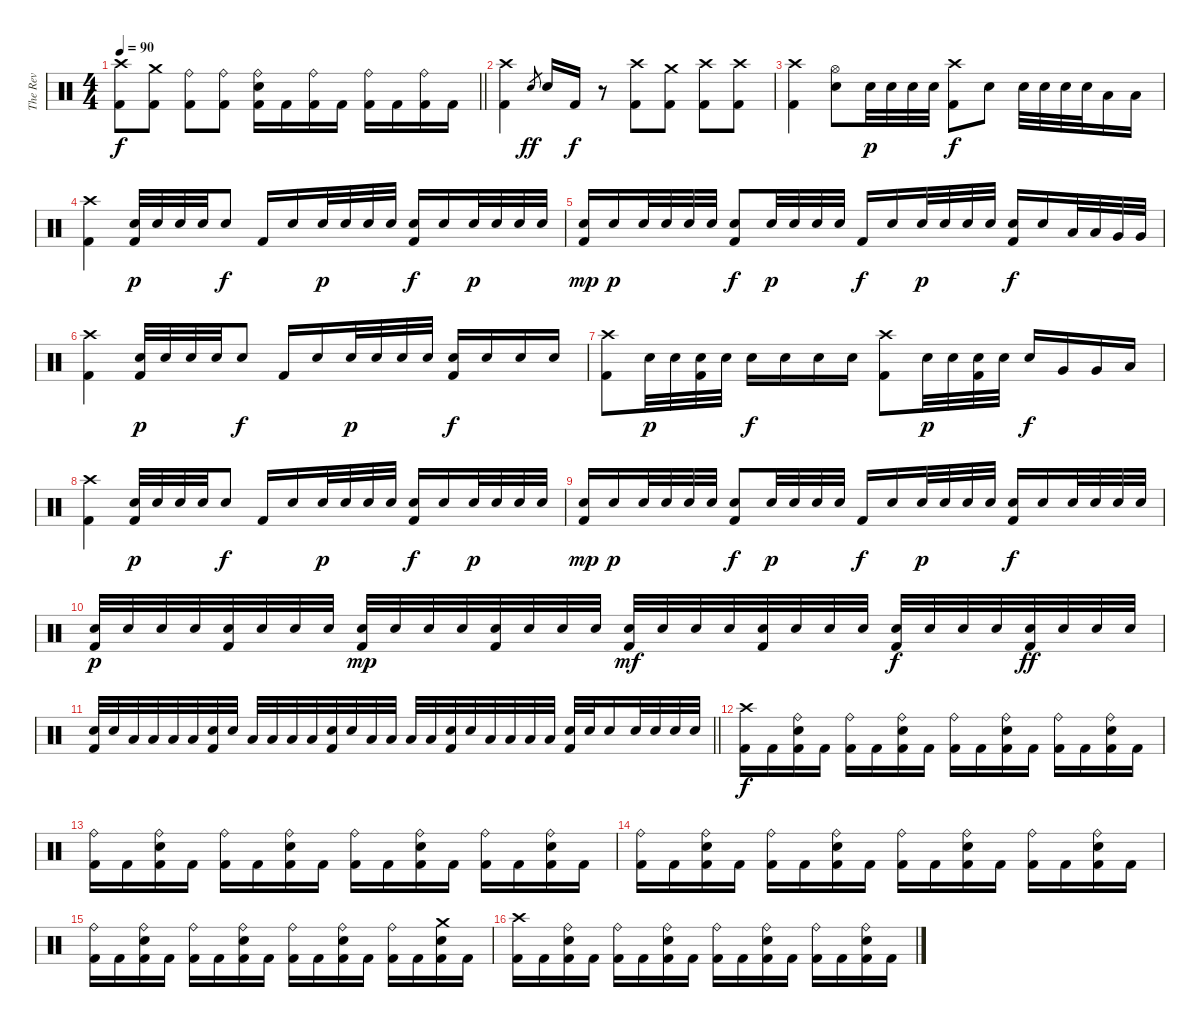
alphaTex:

\track ("The Rev" "The Rev") {instrument percussion}
\staff {score}
\articulation defaults
\ts (4 4)
\tempo 90
\clef neutral
\barLineRight lightlight
\ks c
("Crash high (hit)" "Kick (hit) 2").8{dy f} ("Crash medium (hit)" "Kick (hit) 2").8 ("Ride (bell)" "Kick (hit) 2").8 ("Ride (bell)" "Kick (hit) 2").8 ("Ride (bell)" "Electric Snare (hit)" "Kick (hit) 2").16 "Kick (hit) 2".16 ("Ride (bell)" "Kick (hit) 2").16 "Kick (hit) 2".16 ("Ride (bell)" "Kick (hit) 2").16 "Kick (hit) 2".16 ("Ride (bell)" "Kick (hit) 2").16 "Kick (hit) 2".16 |
("Crash high (hit)" "Kick (hit) 2").4 "Electric Snare (hit)".8{gr dy ff} "Electric Snare (hit)".16 "Kick (hit) 2".16{dy f} r.8 ("Crash high (hit)" "Kick (hit) 2").8 ("Crash medium (hit)" "Kick (hit) 2").8 ("Crash high (hit)" "Kick (hit) 2").8 ("Crash high (hit)" "Kick (hit) 2").8 |
("Crash high (hit)" "Kick (hit) 2").4 ("Hi-Hat (open)" "Electric Snare (hit)").8 "Electric Snare (hit)".32{dy p} "Electric Snare (hit)".32 "Electric Snare (hit)".32 "Electric Snare (hit)".32 ("Crash high (hit)" "Kick (hit) 2").8{dy f} "Electric Snare (hit)".8 "Electric Snare (hit)".32 "Electric Snare (hit)".32 "Electric Snare (hit)".32 "Electric Snare (hit)".32 "Low Tom (hit)".16 "Low Tom (hit)".16 |
("Crash high (hit)" "Kick (hit) 2").4 ("Electric Snare (hit)" "Kick (hit) 2").32{dy p} "Electric Snare (hit)".32 "Electric Snare (hit)".32 "Electric Snare (hit)".32 "Electric Snare (hit)".8{dy f} "Kick (hit) 2".16 "Electric Snare (hit)".16 "Electric Snare (hit)".32{dy p} "Electric Snare (hit)".32 "Electric Snare (hit)".32 "Electric Snare (hit)".32 ("Electric Snare (hit)" "Kick (hit) 2").16{dy f} "Electric Snare (hit)".16 "Electric Snare (hit)".32{dy p} "Electric Snare (hit)".32 "Electric Snare (hit)".32 "Electric Snare (hit)".32 |
("Electric Snare (hit)" "Kick (hit) 2").16{dy mp} "Electric Snare (hit)".16{dy p} "Electric Snare (hit)".32 "Electric Snare (hit)".32 "Electric Snare (hit)".32 "Electric Snare (hit)".32 ("Electric Snare (hit)" "Kick (hit) 2").8{dy f} "Electric Snare (hit)".32{dy p} "Electric Snare (hit)".32 "Electric Snare (hit)".32 "Electric Snare (hit)".32 "Kick (hit) 2".16{dy f} "Electric Snare (hit)".16 "Electric Snare (hit)".32{dy p} "Electric Snare (hit)".32 "Electric Snare (hit)".32 "Electric Snare (hit)".32 ("Electric Snare (hit)" "Kick (hit) 2").16{dy f} "Electric Snare (hit)".16 "Low Tom (hit)".32 "Low Tom (hit)".32 "Very Low Tom (hit)".32 "Very Low Tom (hit)".32 |
("Crash high (hit)" "Kick (hit) 2").4 ("Electric Snare (hit)" "Kick (hit) 2").32{dy p} "Electric Snare (hit)".32 "Electric Snare (hit)".32 "Electric Snare (hit)".32 "Electric Snare (hit)".8{dy f} "Kick (hit) 2".16 "Electric Snare (hit)".16 "Electric Snare (hit)".32{dy p} "Electric Snare (hit)".32 "Electric Snare (hit)".32 "Electric Snare (hit)".32 ("Electric Snare (hit)" "Kick (hit) 2").16{dy f} "Electric Snare (hit)".16 "Electric Snare (hit)".16 "Electric Snare (hit)".16 |
("Crash high (hit)" "Kick (hit) 2").8 "Electric Snare (hit)".32{dy p} "Electric Snare (hit)".32 ("Electric Snare (hit)" "Kick (hit) 2").32 "Electric Snare (hit)".32 "Electric Snare (hit)".16{dy f} "Electric Snare (hit)".16 "Electric Snare (hit)".16 "Electric Snare (hit)".16 ("Crash high (hit)" "Kick (hit) 2").8 "Electric Snare (hit)".32{dy p} "Electric Snare (hit)".32 ("Electric Snare (hit)" "Kick (hit) 2").32 "Electric Snare (hit)".32 "Electric Snare (hit)".16{dy f} "Very Low Tom (hit)".16 "Very Low Tom (hit)".16 "Low Floor Tom (hit)".16 |
("Crash high (hit)" "Kick (hit) 2").4 ("Electric Snare (hit)" "Kick (hit) 2").32{dy p} "Electric Snare (hit)".32 "Electric Snare (hit)".32 "Electric Snare (hit)".32 "Electric Snare (hit)".8{dy f} "Kick (hit) 2".16 "Electric Snare (hit)".16 "Electric Snare (hit)".32{dy p} "Electric Snare (hit)".32 "Electric Snare (hit)".32 "Electric Snare (hit)".32 ("Electric Snare (hit)" "Kick (hit) 2").16{dy f} "Electric Snare (hit)".16 "Electric Snare (hit)".32{dy p} "Electric Snare (hit)".32 "Electric Snare (hit)".32 "Electric Snare (hit)".32 |
("Electric Snare (hit)" "Kick (hit) 2").16{dy mp} "Electric Snare (hit)".16{dy p} "Electric Snare (hit)".32 "Electric Snare (hit)".32 "Electric Snare (hit)".32 "Electric Snare (hit)".32 ("Electric Snare (hit)" "Kick (hit) 2").8{dy f} "Electric Snare (hit)".32{dy p} "Electric Snare (hit)".32 "Electric Snare (hit)".32 "Electric Snare (hit)".32 "Kick (hit) 2".16{dy f} "Electric Snare (hit)".16 "Electric Snare (hit)".32{dy p} "Electric Snare (hit)".32 "Electric Snare (hit)".32 "Electric Snare (hit)".32 ("Electric Snare (hit)" "Kick (hit) 2").16{dy f} "Electric Snare (hit)".16 "Electric Snare (hit)".32 "Electric Snare (hit)".32 "Electric Snare (hit)".32 "Electric Snare (hit)".32 |
("Electric Snare (hit)" "Kick (hit) 2").32{dy p} "Electric Snare (hit)".32 "Electric Snare (hit)".32 "Electric Snare (hit)".32 ("Electric Snare (hit)" "Kick (hit) 2").32 "Electric Snare (hit)".32 "Electric Snare (hit)".32 "Electric Snare (hit)".32 ("Electric Snare (hit)" "Kick (hit) 2").32{dy mp} "Electric Snare (hit)".32 "Electric Snare (hit)".32 "Electric Snare (hit)".32 ("Electric Snare (hit)" "Kick (hit) 2").32 "Electric Snare (hit)".32 "Electric Snare (hit)".32 "Electric Snare (hit)".32 ("Electric Snare (hit)" "Kick (hit) 2").32{dy mf} "Electric Snare (hit)".32 "Electric Snare (hit)".32 "Electric Snare (hit)".32 ("Electric Snare (hit)" "Kick (hit) 2").32 "Electric Snare (hit)".32 "Electric Snare (hit)".32 "Electric Snare (hit)".32 ("Electric Snare (hit)" "Kick (hit) 2").32{dy f} "Electric Snare (hit)".32 "Electric Snare (hit)".32 "Electric Snare (hit)".32 ("Electric Snare (hit)" "Kick (hit) 2").32{dy ff} "Electric Snare (hit)".32 "Electric Snare (hit)".32 "Electric Snare (hit)".32 |
\barLineRight lightlight
("Electric Snare (hit)" "Kick (hit) 2").32 "Electric Snare (hit)".32 "Low Tom (hit)".32 "Low Tom (hit)".32 "Low Tom (hit)".32 "Low Tom (hit)".32 ("Electric Snare (hit)" "Kick (hit) 2").32 "Electric Snare (hit)".32 "Low Tom (hit)".32 "Low Tom (hit)".32 "Low Tom (hit)".32 "Low Tom (hit)".32 ("Electric Snare (hit)" "Kick (hit) 2").32 "Electric Snare (hit)".32 "Low Tom (hit)".32 "Low Tom (hit)".32 "Low Tom (hit)".32 "Low Tom (hit)".32 ("Electric Snare (hit)" "Kick (hit) 2").32 "Electric Snare (hit)".32 "Low Tom (hit)".32 "Low Tom (hit)".32 "Low Tom (hit)".32 "Low Tom (hit)".32 ("Electric Snare (hit)" "Kick (hit) 2").32 "Electric Snare (hit)".32 "Electric Snare (hit)".16 "Electric Snare (hit)".32 "Electric Snare (hit)".32 "Electric Snare (hit)".32 "Electric Snare (hit)".32 |
("Crash high (hit)" "Kick (hit) 2").16{dy f} "Kick (hit) 2".16 ("Ride (bell)" "Electric Snare (hit)" "Kick (hit) 2").16 "Kick (hit) 2".16 ("Ride (bell)" "Kick (hit) 2").16 "Kick (hit) 2".16 ("Ride (bell)" "Electric Snare (hit)" "Kick (hit) 2").16 "Kick (hit) 2".16 ("Ride (bell)" "Kick (hit) 2").16 "Kick (hit) 2".16 ("Ride (bell)" "Electric Snare (hit)" "Kick (hit) 2").16 "Kick (hit) 2".16 ("Ride (bell)" "Kick (hit) 2").16 "Kick (hit) 2".16 ("Ride (bell)" "Electric Snare (hit)" "Kick (hit) 2").16 "Kick (hit) 2".16 |
("Ride (bell)" "Kick (hit) 2").16 "Kick (hit) 2".16 ("Ride (bell)" "Electric Snare (hit)" "Kick (hit) 2").16 "Kick (hit) 2".16 ("Ride (bell)" "Kick (hit) 2").16 "Kick (hit) 2".16 ("Ride (bell)" "Electric Snare (hit)" "Kick (hit) 2").16 "Kick (hit) 2".16 ("Ride (bell)" "Kick (hit) 2").16 "Kick (hit) 2".16 ("Ride (bell)" "Electric Snare (hit)" "Kick (hit) 2").16 "Kick (hit) 2".16 ("Ride (bell)" "Kick (hit) 2").16 "Kick (hit) 2".16 ("Ride (bell)" "Electric Snare (hit)" "Kick (hit) 2").16 "Kick (hit) 2".16 |
("Ride (bell)" "Kick (hit) 2").16 "Kick (hit) 2".16 ("Ride (bell)" "Electric Snare (hit)" "Kick (hit) 2").16 "Kick (hit) 2".16 ("Ride (bell)" "Kick (hit) 2").16 "Kick (hit) 2".16 ("Ride (bell)" "Electric Snare (hit)" "Kick (hit) 2").16 "Kick (hit) 2".16 ("Ride (bell)" "Kick (hit) 2").16 "Kick (hit) 2".16 ("Ride (bell)" "Electric Snare (hit)" "Kick (hit) 2").16 "Kick (hit) 2".16 ("Ride (bell)" "Kick (hit) 2").16 "Kick (hit) 2".16 ("Ride (bell)" "Electric Snare (hit)" "Kick (hit) 2").16 "Kick (hit) 2".16 |
("Ride (bell)" "Kick (hit) 2").16 "Kick (hit) 2".16 ("Ride (bell)" "Electric Snare (hit)" "Kick (hit) 2").16 "Kick (hit) 2".16 ("Ride (bell)" "Kick (hit) 2").16 "Kick (hit) 2".16 ("Ride (bell)" "Electric Snare (hit)" "Kick (hit) 2").16 "Kick (hit) 2".16 ("Ride (bell)" "Kick (hit) 2").16 "Kick (hit) 2".16 ("Ride (bell)" "Electric Snare (hit)" "Kick (hit) 2").16 "Kick (hit) 2".16 ("Ride (bell)" "Kick (hit) 2").16 "Kick (hit) 2".16 ("Crash medium (hit)" "Electric Snare (hit)" "Kick (hit) 2").16 "Kick (hit) 2".16 |
("Crash high (hit)" "Kick (hit) 2").16 "Kick (hit) 2".16 ("Ride (bell)" "Electric Snare (hit)" "Kick (hit) 2").16 "Kick (hit) 2".16 ("Ride (bell)" "Kick (hit) 2").16 "Kick (hit) 2".16 ("Ride (bell)" "Electric Snare (hit)" "Kick (hit) 2").16 "Kick (hit) 2".16 ("Ride (bell)" "Kick (hit) 2").16 "Kick (hit) 2".16 ("Ride (bell)" "Electric Snare (hit)" "Kick (hit) 2").16 "Kick (hit) 2".16 ("Ride (bell)" "Kick (hit) 2").16 "Kick (hit) 2".16 ("Ride (bell)" "Electric Snare (hit)" "Kick (hit) 2").16 "Kick (hit) 2".16
